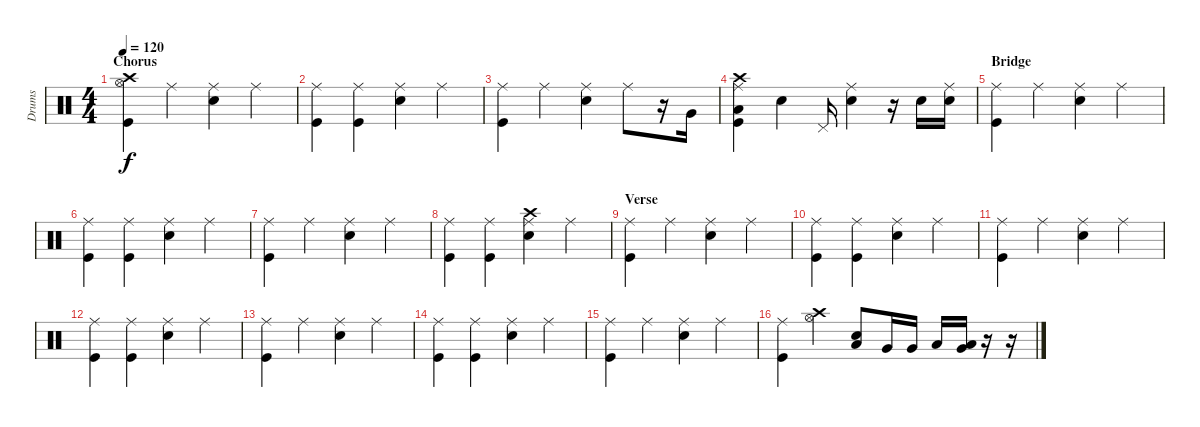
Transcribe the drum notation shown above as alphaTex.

\track ("Drums" "Drums") {instrument percussion}
\staff {score}
\articulation defaults
\ts (4 4)
\section ("" "Chorus")
\tempo 120
\clef neutral
\ks c
("Crash high (hit)" "Hi-Hat (open)" "Kick (hit)").4{dy f} "Ride (middle)".4 ("Ride (middle)" "Electric Snare (hit)").4 "Ride (middle)".4 |
("Ride (middle)" "Kick (hit)").4 ("Ride (middle)" "Kick (hit)").4 ("Ride (middle)" "Electric Snare (hit)").4 "Ride (middle)".4 |
("Ride (middle)" "Kick (hit)").4 "Ride (middle)".4 ("Ride (middle)" "Electric Snare (hit)").4 "Ride (middle)".8 r.16 "Very Low Tom (hit)".16 |
("Ride (middle)" "Crash high (hit)" "Low Tom (hit)" "Kick (hit)").4 "Electric Snare (hit)".4 "Pedal Hi-Hat (hit)".16 ("Ride (middle)" "Electric Snare (hit)").4 r.16 "Electric Snare (hit)".16 ("Ride (middle)" "Electric Snare (hit)").16 |
\section ("" "Bridge")
("Ride (middle)" "Kick (hit)").4 "Ride (middle)".4 ("Ride (middle)" "Electric Snare (hit)").4 "Ride (middle)".4 |
("Ride (middle)" "Kick (hit)").4 ("Ride (middle)" "Kick (hit)").4 ("Ride (middle)" "Electric Snare (hit)").4 "Ride (middle)".4 |
("Ride (middle)" "Kick (hit)").4 "Ride (middle)".4 ("Ride (middle)" "Electric Snare (hit)").4 "Ride (middle)".4 |
("Ride (middle)" "Kick (hit)").4 ("Ride (middle)" "Kick (hit)").4 ("Ride (middle)" "Crash high (hit)" "Electric Snare (hit)").4 "Ride (middle)".4 |
\section ("" "Verse")
("Ride (middle)" "Kick (hit)").4 "Ride (middle)".4 ("Ride (middle)" "Electric Snare (hit)").4 "Ride (middle)".4 |
("Ride (middle)" "Kick (hit)").4 ("Ride (middle)" "Kick (hit)").4 ("Ride (middle)" "Electric Snare (hit)").4 "Ride (middle)".4 |
("Ride (middle)" "Kick (hit)").4 "Ride (middle)".4 ("Ride (middle)" "Electric Snare (hit)").4 "Ride (middle)".4 |
("Ride (middle)" "Kick (hit)").4 ("Ride (middle)" "Kick (hit)").4 ("Ride (middle)" "Electric Snare (hit)").4 "Ride (middle)".4 |
("Ride (middle)" "Kick (hit)").4 "Ride (middle)".4 ("Ride (middle)" "Electric Snare (hit)").4 "Ride (middle)".4 |
("Ride (middle)" "Kick (hit)").4 ("Ride (middle)" "Kick (hit)").4 ("Ride (middle)" "Electric Snare (hit)").4 "Ride (middle)".4 |
("Ride (middle)" "Kick (hit)").4 "Ride (middle)".4 ("Ride (middle)" "Electric Snare (hit)").4 "Ride (middle)".4 |
("Ride (middle)" "Kick (hit)").4 ("Crash high (hit)" "Hi-Hat (open)").4 ("Low Tom (hit)" "Electric Snare (hit)").8 "Very Low Tom (hit)".16 "Very Low Tom (hit)".16 "Low Floor Tom (hit)".16 ("Low Tom (hit)" "Very Low Tom (hit)").16 r.16 r.16
